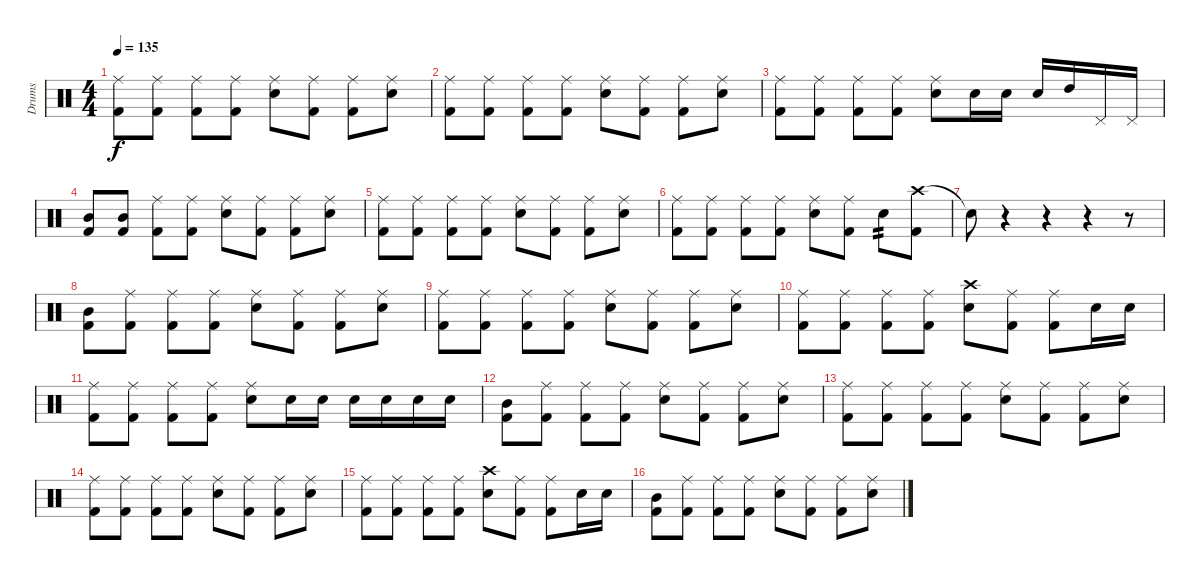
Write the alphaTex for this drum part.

\track ("Drums" "Drums") {instrument percussion}
\staff {score}
\articulation defaults
\ts (4 4)
\tempo 135
\clef neutral
\ks c
("Ride (middle)" "Kick (hit) 2").8{dy f} ("Ride (middle)" "Kick (hit) 2").8 ("Ride (middle)" "Kick (hit) 2").8 ("Ride (middle)" "Kick (hit) 2").8 ("Ride (middle)" "Snare (hit) 2").8 ("Ride (middle)" "Kick (hit) 2").8 ("Ride (middle)" "Kick (hit) 2").8 ("Ride (middle)" "Snare (hit) 2").8 |
("Ride (middle)" "Kick (hit) 2").8 ("Ride (middle)" "Kick (hit) 2").8 ("Ride (middle)" "Kick (hit) 2").8 ("Ride (middle)" "Kick (hit) 2").8 ("Ride (middle)" "Snare (hit) 2").8 ("Ride (middle)" "Kick (hit) 2").8 ("Ride (middle)" "Kick (hit) 2").8 ("Ride (middle)" "Snare (hit) 2").8 |
("Ride (middle)" "Kick (hit) 2").8 ("Ride (middle)" "Kick (hit) 2").8 ("Ride (middle)" "Kick (hit) 2").8 ("Ride (middle)" "Kick (hit) 2").8 ("Ride (middle)" "Snare (hit) 2").8 "Snare (hit) 2".16 "Snare (hit) 2".16 "Snare (hit) 2".16 "High Tom (hit)".16 "Pedal Hi-Hat (hit)".16 "Pedal Hi-Hat (hit)".16 |
("Mid Tom (hit)" "Kick (hit) 2").8 ("Mid Tom (hit)" "Kick (hit) 2").8 ("Ride (middle)" "Kick (hit) 2").8 ("Ride (middle)" "Kick (hit) 2").8 ("Ride (middle)" "Snare (hit) 2").8 ("Ride (middle)" "Kick (hit) 2").8 ("Ride (middle)" "Kick (hit) 2").8 ("Ride (middle)" "Snare (hit) 2").8 |
("Ride (middle)" "Kick (hit) 2").8 ("Ride (middle)" "Kick (hit) 2").8 ("Ride (middle)" "Kick (hit) 2").8 ("Ride (middle)" "Kick (hit) 2").8 ("Ride (middle)" "Snare (hit) 2").8 ("Ride (middle)" "Kick (hit) 2").8 ("Ride (middle)" "Kick (hit) 2").8 ("Ride (middle)" "Snare (hit) 2").8 |
("Ride (middle)" "Kick (hit) 2").8 ("Ride (middle)" "Kick (hit) 2").8 ("Ride (middle)" "Kick (hit) 2").8 ("Ride (middle)" "Kick (hit) 2").8 ("Ride (middle)" "Snare (hit) 2").8 ("Ride (middle)" "Kick (hit) 2").8 "Snare (hit) 2".8{tp 2} ("Crash high (hit)" "Kick (hit) 2").8 |
"Snare (hit)"{t}.8 r.4 r.4 r.4 r.8 |
("Mid Tom (hit)" "Kick (hit) 2").8 ("Ride (middle)" "Kick (hit) 2").8 ("Ride (middle)" "Kick (hit) 2").8 ("Ride (middle)" "Kick (hit) 2").8 ("Ride (middle)" "Snare (hit) 2").8 ("Ride (middle)" "Kick (hit) 2").8 ("Ride (middle)" "Kick (hit) 2").8 ("Ride (middle)" "Snare (hit) 2").8 |
("Ride (middle)" "Kick (hit) 2").8 ("Ride (middle)" "Kick (hit) 2").8 ("Ride (middle)" "Kick (hit) 2").8 ("Ride (middle)" "Kick (hit) 2").8 ("Ride (middle)" "Snare (hit) 2").8 ("Ride (middle)" "Kick (hit) 2").8 ("Ride (middle)" "Kick (hit) 2").8 ("Ride (middle)" "Snare (hit) 2").8 |
("Ride (middle)" "Kick (hit) 2").8 ("Ride (middle)" "Kick (hit) 2").8 ("Ride (middle)" "Kick (hit) 2").8 ("Ride (middle)" "Kick (hit) 2").8 ("Crash high (hit)" "Snare (hit) 2").8 ("Ride (middle)" "Kick (hit) 2").8 ("Ride (middle)" "Kick (hit) 2").8 "Snare (hit) 2".16 "Snare (hit) 2".16 |
("Ride (middle)" "Kick (hit) 2").8 ("Ride (middle)" "Kick (hit) 2").8 ("Ride (middle)" "Kick (hit) 2").8 ("Ride (middle)" "Kick (hit) 2").8 ("Ride (middle)" "Snare (hit) 2").8 "Snare (hit) 2".16 "Snare (hit) 2".16 "Snare (hit) 2".16 "Snare (hit) 2".16 "Snare (hit) 2".16 "Snare (hit) 2".16 |
("Mid Tom (hit)" "Kick (hit) 2").8 ("Ride (middle)" "Kick (hit) 2").8 ("Ride (middle)" "Kick (hit) 2").8 ("Ride (middle)" "Kick (hit) 2").8 ("Ride (middle)" "Snare (hit) 2").8 ("Ride (middle)" "Kick (hit) 2").8 ("Ride (middle)" "Kick (hit) 2").8 ("Ride (middle)" "Snare (hit) 2").8 |
("Ride (middle)" "Kick (hit) 2").8 ("Ride (middle)" "Kick (hit) 2").8 ("Ride (middle)" "Kick (hit) 2").8 ("Ride (middle)" "Kick (hit) 2").8 ("Ride (middle)" "Snare (hit) 2").8 ("Ride (middle)" "Kick (hit) 2").8 ("Ride (middle)" "Kick (hit) 2").8 ("Ride (middle)" "Snare (hit) 2").8 |
("Ride (middle)" "Kick (hit) 2").8 ("Ride (middle)" "Kick (hit) 2").8 ("Ride (middle)" "Kick (hit) 2").8 ("Ride (middle)" "Kick (hit) 2").8 ("Ride (middle)" "Snare (hit) 2").8 ("Ride (middle)" "Kick (hit) 2").8 ("Ride (middle)" "Kick (hit) 2").8 ("Ride (middle)" "Snare (hit) 2").8 |
("Ride (middle)" "Kick (hit) 2").8 ("Ride (middle)" "Kick (hit) 2").8 ("Ride (middle)" "Kick (hit) 2").8 ("Ride (middle)" "Kick (hit) 2").8 ("Crash high (hit)" "Snare (hit) 2").8 ("Ride (middle)" "Kick (hit) 2").8 ("Ride (middle)" "Kick (hit) 2").8 "Snare (hit) 2".16 "Snare (hit) 2".16 |
("Mid Tom (hit)" "Kick (hit) 2").8 ("Ride (middle)" "Kick (hit) 2").8 ("Ride (middle)" "Kick (hit) 2").8 ("Ride (middle)" "Kick (hit) 2").8 ("Ride (middle)" "Snare (hit) 2").8 ("Ride (middle)" "Kick (hit) 2").8 ("Ride (middle)" "Kick (hit) 2").8 ("Ride (middle)" "Snare (hit) 2").8
